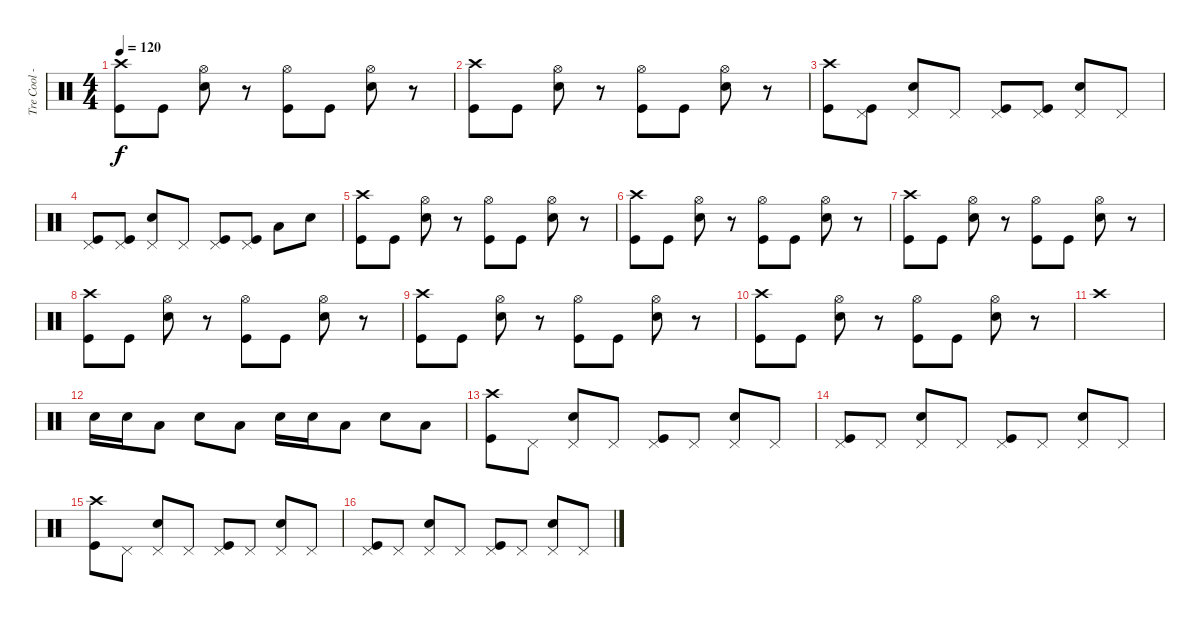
\track ("Tre Cool - Percussion" "Tre Cool -") {instrument percussion}
\staff {score}
\articulation defaults
\ts (4 4)
\tempo 120
\clef neutral
\ks c
("Crash high (hit)" "Kick (hit)").8{dy f} "Kick (hit)".8 ("Hi-Hat (open)" "Electric Snare (hit)").8 r.8 ("Hi-Hat (open)" "Kick (hit)").8 "Kick (hit)".8 ("Hi-Hat (open)" "Electric Snare (hit)").8 r.8 |
("Crash high (hit)" "Kick (hit)").8 "Kick (hit)".8 ("Hi-Hat (open)" "Electric Snare (hit)").8 r.8 ("Hi-Hat (open)" "Kick (hit)").8 "Kick (hit)".8 ("Hi-Hat (open)" "Electric Snare (hit)").8 r.8 |
("Crash high (hit)" "Kick (hit)").8 ("Pedal Hi-Hat (hit)" "Kick (hit)").8 ("Pedal Hi-Hat (hit)" "Electric Snare (hit)").8 "Pedal Hi-Hat (hit)".8 ("Pedal Hi-Hat (hit)" "Kick (hit)").8 ("Pedal Hi-Hat (hit)" "Kick (hit)").8 ("Pedal Hi-Hat (hit)" "Electric Snare (hit)").8 "Pedal Hi-Hat (hit)".8 |
("Pedal Hi-Hat (hit)" "Kick (hit)").8 ("Pedal Hi-Hat (hit)" "Kick (hit)").8 ("Pedal Hi-Hat (hit)" "Electric Snare (hit)").8 "Pedal Hi-Hat (hit)".8 ("Pedal Hi-Hat (hit)" "Kick (hit)").8 ("Pedal Hi-Hat (hit)" "Kick (hit)").8 "Low Tom (hit)".8 "Electric Snare (hit)".8 |
("Crash high (hit)" "Kick (hit)").8 "Kick (hit)".8 ("Hi-Hat (open)" "Electric Snare (hit)").8 r.8 ("Hi-Hat (open)" "Kick (hit)").8 "Kick (hit)".8 ("Hi-Hat (open)" "Electric Snare (hit)").8 r.8 |
("Crash high (hit)" "Kick (hit)").8 "Kick (hit)".8 ("Hi-Hat (open)" "Electric Snare (hit)").8 r.8 ("Hi-Hat (open)" "Kick (hit)").8 "Kick (hit)".8 ("Hi-Hat (open)" "Electric Snare (hit)").8 r.8 |
("Crash high (hit)" "Kick (hit)").8 "Kick (hit)".8 ("Hi-Hat (open)" "Electric Snare (hit)").8 r.8 ("Hi-Hat (open)" "Kick (hit)").8 "Kick (hit)".8 ("Hi-Hat (open)" "Electric Snare (hit)").8 r.8 |
("Crash high (hit)" "Kick (hit)").8 "Kick (hit)".8 ("Hi-Hat (open)" "Electric Snare (hit)").8 r.8 ("Hi-Hat (open)" "Kick (hit)").8 "Kick (hit)".8 ("Hi-Hat (open)" "Electric Snare (hit)").8 r.8 |
("Crash high (hit)" "Kick (hit)").8 "Kick (hit)".8 ("Hi-Hat (open)" "Electric Snare (hit)").8 r.8 ("Hi-Hat (open)" "Kick (hit)").8 "Kick (hit)".8 ("Hi-Hat (open)" "Electric Snare (hit)").8 r.8 |
("Crash high (hit)" "Kick (hit)").8 "Kick (hit)".8 ("Hi-Hat (open)" "Electric Snare (hit)").8 r.8 ("Hi-Hat (open)" "Kick (hit)").8 "Kick (hit)".8 ("Hi-Hat (open)" "Electric Snare (hit)").8 r.8 |
"Crash high (hit)".1 |
"Electric Snare (hit)".16 "Electric Snare (hit)".16 "Low Tom (hit)".8 "Electric Snare (hit)".8 "Low Tom (hit)".8 "Electric Snare (hit)".16 "Electric Snare (hit)".16 "Low Tom (hit)".8 "Electric Snare (hit)".8 "Low Tom (hit)".8 |
("Crash high (hit)" "Kick (hit)").8 "Pedal Hi-Hat (hit)".8 ("Pedal Hi-Hat (hit)" "Electric Snare (hit)").8 "Pedal Hi-Hat (hit)".8 ("Pedal Hi-Hat (hit)" "Kick (hit)").8 "Pedal Hi-Hat (hit)".8 ("Pedal Hi-Hat (hit)" "Electric Snare (hit)").8 "Pedal Hi-Hat (hit)".8 |
("Pedal Hi-Hat (hit)" "Kick (hit)").8 "Pedal Hi-Hat (hit)".8 ("Pedal Hi-Hat (hit)" "Electric Snare (hit)").8 "Pedal Hi-Hat (hit)".8 ("Pedal Hi-Hat (hit)" "Kick (hit)").8 "Pedal Hi-Hat (hit)".8 ("Pedal Hi-Hat (hit)" "Electric Snare (hit)").8 "Pedal Hi-Hat (hit)".8 |
("Crash high (hit)" "Kick (hit)").8 "Pedal Hi-Hat (hit)".8 ("Pedal Hi-Hat (hit)" "Electric Snare (hit)").8 "Pedal Hi-Hat (hit)".8 ("Pedal Hi-Hat (hit)" "Kick (hit)").8 "Pedal Hi-Hat (hit)".8 ("Pedal Hi-Hat (hit)" "Electric Snare (hit)").8 "Pedal Hi-Hat (hit)".8 |
("Pedal Hi-Hat (hit)" "Kick (hit)").8 "Pedal Hi-Hat (hit)".8 ("Pedal Hi-Hat (hit)" "Electric Snare (hit)").8 "Pedal Hi-Hat (hit)".8 ("Pedal Hi-Hat (hit)" "Kick (hit)").8 "Pedal Hi-Hat (hit)".8 ("Pedal Hi-Hat (hit)" "Electric Snare (hit)").8 "Pedal Hi-Hat (hit)".8
